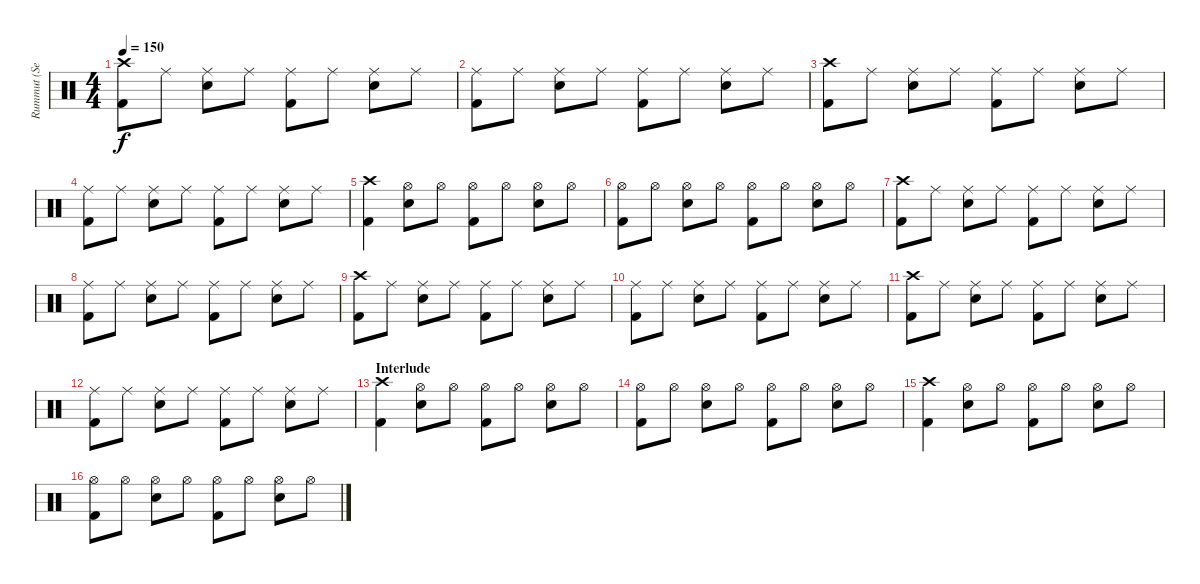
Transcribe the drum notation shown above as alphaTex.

\track ("Rummut (Seppo Pohjolainen)" "Rummut (Se") {instrument percussion}
\staff {score}
\articulation defaults
\ts (4 4)
\tempo 150
\clef neutral
\ks c
("Crash high (hit)" "Kick (hit) 2").8{dy f} "Ride (middle)".8 ("Ride (middle)" "Snare (hit) 2").8 "Ride (middle)".8 ("Ride (middle)" "Kick (hit) 2").8 "Ride (middle)".8 ("Ride (middle)" "Snare (hit) 2").8 "Ride (middle)".8 |
("Ride (middle)" "Kick (hit) 2").8 "Ride (middle)".8 ("Ride (middle)" "Snare (hit) 2").8 "Ride (middle)".8 ("Ride (middle)" "Kick (hit) 2").8 "Ride (middle)".8 ("Ride (middle)" "Snare (hit) 2").8 "Ride (middle)".8 |
("Crash high (hit)" "Kick (hit) 2").8 "Ride (middle)".8 ("Ride (middle)" "Snare (hit) 2").8 "Ride (middle)".8 ("Ride (middle)" "Kick (hit) 2").8 "Ride (middle)".8 ("Ride (middle)" "Snare (hit) 2").8 "Ride (middle)".8 |
("Ride (middle)" "Kick (hit) 2").8 "Ride (middle)".8 ("Ride (middle)" "Snare (hit) 2").8 "Ride (middle)".8 ("Ride (middle)" "Kick (hit) 2").8 "Ride (middle)".8 ("Ride (middle)" "Snare (hit) 2").8 "Ride (middle)".8 |
("Crash high (hit)" "Kick (hit) 2").4 ("Hi-Hat (open)" "Snare (hit) 2").8 "Hi-Hat (open)".8 ("Hi-Hat (open)" "Kick (hit) 2").8 "Hi-Hat (open)".8 ("Hi-Hat (open)" "Snare (hit) 2").8 "Hi-Hat (open)".8 |
("Hi-Hat (open)" "Kick (hit) 2").8 "Hi-Hat (open)".8 ("Hi-Hat (open)" "Snare (hit) 2").8 "Hi-Hat (open)".8 ("Hi-Hat (open)" "Kick (hit) 2").8 "Hi-Hat (open)".8 ("Hi-Hat (open)" "Snare (hit) 2").8 "Hi-Hat (open)".8 |
("Crash high (hit)" "Kick (hit) 2").8 "Ride (middle)".8 ("Ride (middle)" "Snare (hit) 2").8 "Ride (middle)".8 ("Ride (middle)" "Kick (hit) 2").8 "Ride (middle)".8 ("Ride (middle)" "Snare (hit) 2").8 "Ride (middle)".8 |
("Ride (middle)" "Kick (hit) 2").8 "Ride (middle)".8 ("Ride (middle)" "Snare (hit) 2").8 "Ride (middle)".8 ("Ride (middle)" "Kick (hit) 2").8 "Ride (middle)".8 ("Ride (middle)" "Snare (hit) 2").8 "Ride (middle)".8 |
("Crash high (hit)" "Kick (hit) 2").8 "Ride (middle)".8 ("Ride (middle)" "Snare (hit) 2").8 "Ride (middle)".8 ("Ride (middle)" "Kick (hit) 2").8 "Ride (middle)".8 ("Ride (middle)" "Snare (hit) 2").8 "Ride (middle)".8 |
("Ride (middle)" "Kick (hit) 2").8 "Ride (middle)".8 ("Ride (middle)" "Snare (hit) 2").8 "Ride (middle)".8 ("Ride (middle)" "Kick (hit) 2").8 "Ride (middle)".8 ("Ride (middle)" "Snare (hit) 2").8 "Ride (middle)".8 |
("Crash high (hit)" "Kick (hit) 2").8 "Ride (middle)".8 ("Ride (middle)" "Snare (hit) 2").8 "Ride (middle)".8 ("Ride (middle)" "Kick (hit) 2").8 "Ride (middle)".8 ("Ride (middle)" "Snare (hit) 2").8 "Ride (middle)".8 |
("Ride (middle)" "Kick (hit) 2").8 "Ride (middle)".8 ("Ride (middle)" "Snare (hit) 2").8 "Ride (middle)".8 ("Ride (middle)" "Kick (hit) 2").8 "Ride (middle)".8 ("Ride (middle)" "Snare (hit) 2").8 "Ride (middle)".8 |
\section ("" "Interlude")
("Crash high (hit)" "Kick (hit) 2").4 ("Hi-Hat (open)" "Snare (hit) 2").8 "Hi-Hat (open)".8 ("Hi-Hat (open)" "Kick (hit) 2").8 "Hi-Hat (open)".8 ("Hi-Hat (open)" "Snare (hit) 2").8 "Hi-Hat (open)".8 |
("Hi-Hat (open)" "Kick (hit) 2").8 "Hi-Hat (open)".8 ("Hi-Hat (open)" "Snare (hit) 2").8 "Hi-Hat (open)".8 ("Hi-Hat (open)" "Kick (hit) 2").8 "Hi-Hat (open)".8 ("Hi-Hat (open)" "Snare (hit) 2").8 "Hi-Hat (open)".8 |
("Crash high (hit)" "Kick (hit) 2").4 ("Hi-Hat (open)" "Snare (hit) 2").8 "Hi-Hat (open)".8 ("Hi-Hat (open)" "Kick (hit) 2").8 "Hi-Hat (open)".8 ("Hi-Hat (open)" "Snare (hit) 2").8 "Hi-Hat (open)".8 |
("Hi-Hat (open)" "Kick (hit) 2").8 "Hi-Hat (open)".8 ("Hi-Hat (open)" "Snare (hit) 2").8 "Hi-Hat (open)".8 ("Hi-Hat (open)" "Kick (hit) 2").8 "Hi-Hat (open)".8 ("Hi-Hat (open)" "Snare (hit) 2").8 "Hi-Hat (open)".8
